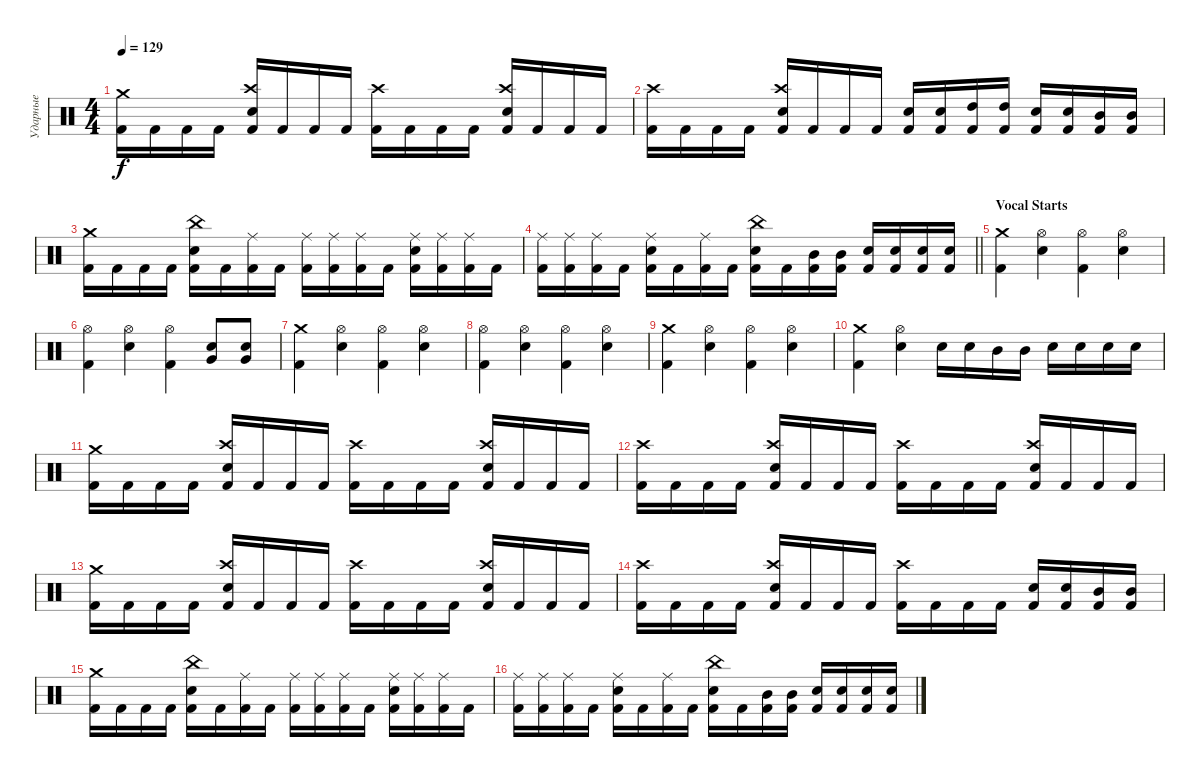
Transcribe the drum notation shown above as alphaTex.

\track ("Ударные" "Ударные") {instrument percussion}
\staff
\articulation defaults
\ts (4 4)
\tempo 129
\clef neutral
\ks c
("Crash medium (hit)" "Kick (hit) 2").16{dy f} "Kick (hit) 2".16 "Kick (hit) 2".16 "Kick (hit) 2".16 ("Crash high (hit)" "Snare (hit) 2" "Kick (hit) 2").16 "Kick (hit) 2".16 "Kick (hit) 2".16 "Kick (hit) 2".16 ("Crash high (hit)" "Kick (hit) 2").16 "Kick (hit) 2".16 "Kick (hit) 2".16 "Kick (hit) 2".16 ("Crash high (hit)" "Snare (hit) 2" "Kick (hit) 2").16 "Kick (hit) 2".16 "Kick (hit) 2".16 "Kick (hit) 2".16 |
("Crash high (hit)" "Kick (hit) 2").16 "Kick (hit) 2".16 "Kick (hit) 2".16 "Kick (hit) 2".16 ("Crash high (hit)" "Snare (hit) 2" "Kick (hit) 2").16 "Kick (hit) 2".16 "Kick (hit) 2".16 "Kick (hit) 2".16 ("Snare (hit) 2" "Kick (hit) 2").16 ("Snare (hit) 2" "Kick (hit) 2").16 ("High Tom (hit)" "Kick (hit) 2").16 ("High Tom (hit)" "Kick (hit) 2").16 ("Snare (hit) 2" "Kick (hit) 2").16 ("Snare (hit) 2" "Kick (hit) 2").16 ("Mid Tom (hit)" "Kick (hit) 2").16 ("Mid Tom (hit)" "Kick (hit) 2").16 |
("Crash medium (hit)" "Kick (hit) 2").16 "Kick (hit) 2".16 "Kick (hit) 2".16 "Kick (hit) 2".16 ("China (hit)" "Snare (hit) 2" "Kick (hit) 2").16 "Kick (hit) 2".16 ("Ride (middle)" "Kick (hit) 2").16 "Kick (hit) 2".16 ("Ride (middle)" "Kick (hit) 2").16 ("Ride (middle)" "Kick (hit) 2").16 ("Ride (middle)" "Kick (hit) 2").16 "Kick (hit) 2".16 ("Ride (middle)" "Snare (hit) 2" "Kick (hit) 2").16 ("Ride (middle)" "Kick (hit) 2").16 ("Ride (middle)" "Kick (hit) 2").16 "Kick (hit) 2".16 |
\barLineRight lightlight
("Ride (middle)" "Kick (hit) 2").16 ("Ride (middle)" "Kick (hit) 2").16 ("Ride (middle)" "Kick (hit) 2").16 "Kick (hit) 2".16 ("Ride (middle)" "Snare (hit) 2" "Kick (hit) 2").16 "Kick (hit) 2".16 ("Ride (middle)" "Kick (hit) 2").16 "Kick (hit) 2".16 ("China (hit)" "Snare (hit) 2" "Kick (hit) 2").16 "Kick (hit) 2".16 ("Mid Tom (hit)" "Kick (hit) 2").16 ("Mid Tom (hit)" "Kick (hit) 2").16 ("Snare (hit) 2" "Kick (hit) 2").16 ("Snare (hit) 2" "Kick (hit) 2").16 ("Snare (hit) 2" "Kick (hit) 2").16 ("Snare (hit) 2" "Kick (hit) 2").16 |
\section ("" "Vocal Starts")
("Crash medium (hit)" "Kick (hit) 2").4 ("Hi-Hat (open)" "Snare (hit) 2").4 ("Hi-Hat (open)" "Kick (hit) 2").4 ("Hi-Hat (open)" "Snare (hit) 2").4 |
("Hi-Hat (open)" "Kick (hit) 2").4 ("Hi-Hat (open)" "Snare (hit) 2").4 ("Hi-Hat (open)" "Kick (hit) 2").4 ("Snare (hit) 2" "Very Low Tom (hit)").8 ("Snare (hit) 2" "Very Low Tom (hit)").8 |
("Crash medium (hit)" "Kick (hit) 2").4 ("Hi-Hat (open)" "Snare (hit) 2").4 ("Hi-Hat (open)" "Kick (hit) 2").4 ("Hi-Hat (open)" "Snare (hit) 2").4 |
("Hi-Hat (open)" "Kick (hit) 2").4 ("Hi-Hat (open)" "Snare (hit) 2").4 ("Hi-Hat (open)" "Kick (hit) 2").4 ("Hi-Hat (open)" "Snare (hit) 2").4 |
("Crash medium (hit)" "Kick (hit) 2").4 ("Hi-Hat (open)" "Snare (hit) 2").4 ("Hi-Hat (open)" "Kick (hit) 2").4 ("Hi-Hat (open)" "Snare (hit) 2").4 |
("Crash medium (hit)" "Kick (hit) 2").4 ("Hi-Hat (open)" "Snare (hit) 2").4 "Snare (hit) 2".16 "Snare (hit) 2".16 "Mid Tom (hit)".16 "Mid Tom (hit)".16 "Snare (hit) 2".16 "Snare (hit) 2".16 "Snare (hit) 2".16 "Snare (hit) 2".16 |
("Crash medium (hit)" "Kick (hit) 2").16 "Kick (hit) 2".16 "Kick (hit) 2".16 "Kick (hit) 2".16 ("Crash high (hit)" "Snare (hit) 2" "Kick (hit) 2").16 "Kick (hit) 2".16 "Kick (hit) 2".16 "Kick (hit) 2".16 ("Crash high (hit)" "Kick (hit) 2").16 "Kick (hit) 2".16 "Kick (hit) 2".16 "Kick (hit) 2".16 ("Crash high (hit)" "Snare (hit) 2" "Kick (hit) 2").16 "Kick (hit) 2".16 "Kick (hit) 2".16 "Kick (hit) 2".16 |
("Crash high (hit)" "Kick (hit) 2").16 "Kick (hit) 2".16 "Kick (hit) 2".16 "Kick (hit) 2".16 ("Crash high (hit)" "Snare (hit) 2" "Kick (hit) 2").16 "Kick (hit) 2".16 "Kick (hit) 2".16 "Kick (hit) 2".16 ("Crash high (hit)" "Kick (hit) 2").16 "Kick (hit) 2".16 "Kick (hit) 2".16 "Kick (hit) 2".16 ("Crash high (hit)" "Snare (hit) 2" "Kick (hit) 2").16 "Kick (hit) 2".16 "Kick (hit) 2".16 "Kick (hit) 2".16 |
("Crash medium (hit)" "Kick (hit) 2").16 "Kick (hit) 2".16 "Kick (hit) 2".16 "Kick (hit) 2".16 ("Crash high (hit)" "Snare (hit) 2" "Kick (hit) 2").16 "Kick (hit) 2".16 "Kick (hit) 2".16 "Kick (hit) 2".16 ("Crash high (hit)" "Kick (hit) 2").16 "Kick (hit) 2".16 "Kick (hit) 2".16 "Kick (hit) 2".16 ("Crash high (hit)" "Snare (hit) 2" "Kick (hit) 2").16 "Kick (hit) 2".16 "Kick (hit) 2".16 "Kick (hit) 2".16 |
("Crash high (hit)" "Kick (hit) 2").16 "Kick (hit) 2".16 "Kick (hit) 2".16 "Kick (hit) 2".16 ("Crash high (hit)" "Snare (hit) 2" "Kick (hit) 2").16 "Kick (hit) 2".16 "Kick (hit) 2".16 "Kick (hit) 2".16 ("Crash high (hit)" "Kick (hit) 2").16 "Kick (hit) 2".16 "Kick (hit) 2".16 "Kick (hit) 2".16 ("Snare (hit) 2" "Kick (hit) 2").16 ("Snare (hit) 2" "Kick (hit) 2").16 ("Mid Tom (hit)" "Kick (hit) 2").16 ("Mid Tom (hit)" "Kick (hit) 2").16 |
("Crash medium (hit)" "Kick (hit) 2").16 "Kick (hit) 2".16 "Kick (hit) 2".16 "Kick (hit) 2".16 ("China (hit)" "Snare (hit) 2" "Kick (hit) 2").16 "Kick (hit) 2".16 ("Ride (middle)" "Kick (hit) 2").16 "Kick (hit) 2".16 ("Ride (middle)" "Kick (hit) 2").16 ("Ride (middle)" "Kick (hit) 2").16 ("Ride (middle)" "Kick (hit) 2").16 "Kick (hit) 2".16 ("Ride (middle)" "Snare (hit) 2" "Kick (hit) 2").16 ("Ride (middle)" "Kick (hit) 2").16 ("Ride (middle)" "Kick (hit) 2").16 "Kick (hit) 2".16 |
("Ride (middle)" "Kick (hit) 2").16 ("Ride (middle)" "Kick (hit) 2").16 ("Ride (middle)" "Kick (hit) 2").16 "Kick (hit) 2".16 ("Ride (middle)" "Snare (hit) 2" "Kick (hit) 2").16 "Kick (hit) 2".16 ("Ride (middle)" "Kick (hit) 2").16 "Kick (hit) 2".16 ("China (hit)" "Snare (hit) 2" "Kick (hit) 2").16 "Kick (hit) 2".16 ("Mid Tom (hit)" "Kick (hit) 2").16 ("Mid Tom (hit)" "Kick (hit) 2").16 ("Snare (hit) 2" "Kick (hit) 2").16 ("Snare (hit) 2" "Kick (hit) 2").16 ("Snare (hit) 2" "Kick (hit) 2").16 ("Snare (hit) 2" "Kick (hit) 2").16
